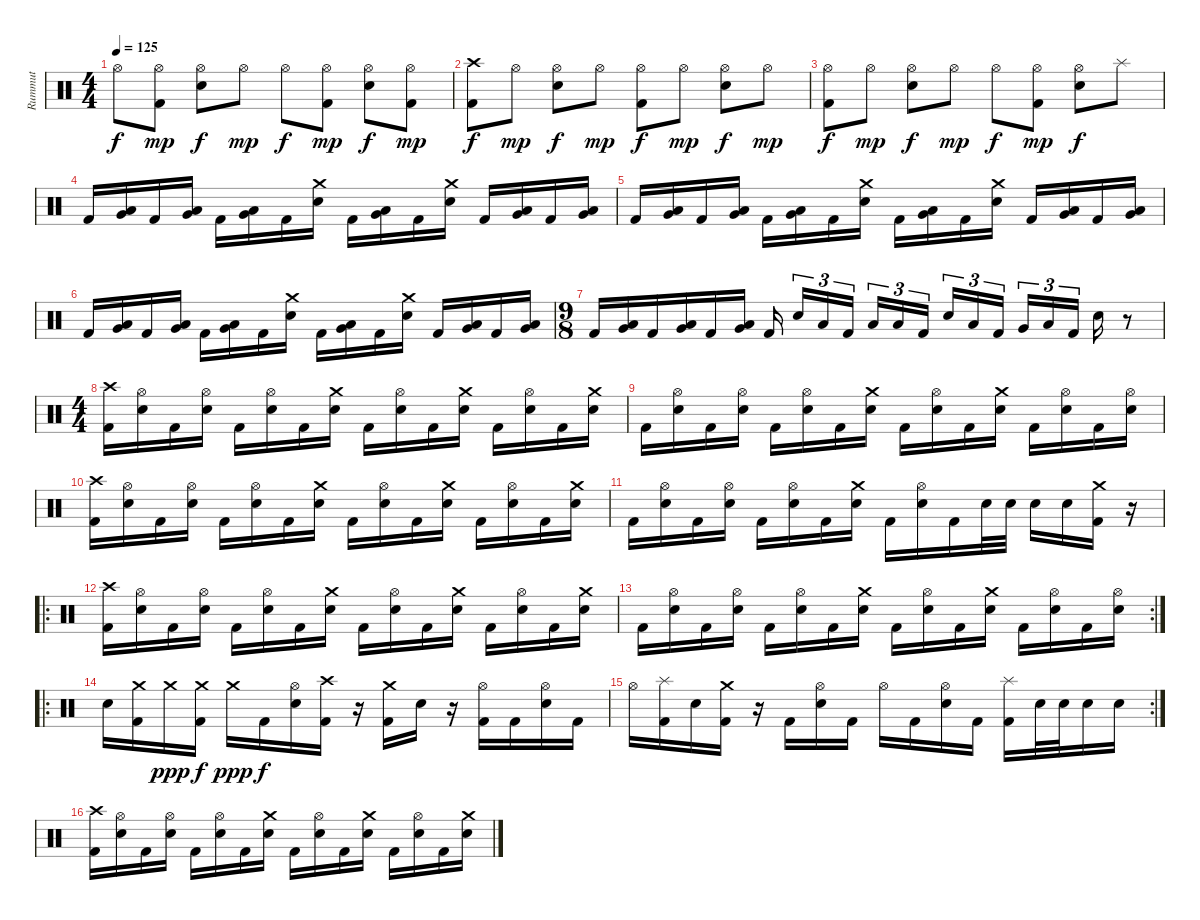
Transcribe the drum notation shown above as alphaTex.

\track ("Rummut" "Rummut") {instrument percussion}
\staff {score}
\articulation defaults
\ts (4 4)
\tempo 125
\clef neutral
\ks c "Hi-Hat (open)".8{dy f}
("Hi-Hat (open)" "Kick (hit) 2").8{dy mp} ("Hi-Hat (open)" "Electric Snare (hit)").8{dy f} "Hi-Hat (open)".8{dy mp} "Hi-Hat (open)".8{dy f} ("Hi-Hat (open)" "Kick (hit) 2").8{dy mp} ("Hi-Hat (open)" "Electric Snare (hit)").8{dy f} ("Hi-Hat (open)" "Kick (hit) 2").8{dy mp} |
("Crash high (hit)" "Kick (hit) 2").8{dy f} "Hi-Hat (open)".8{dy mp} ("Hi-Hat (open)" "Electric Snare (hit)").8{dy f} "Hi-Hat (open)".8{dy mp} ("Hi-Hat (open)" "Kick (hit) 2").8{dy f} "Hi-Hat (open)".8{dy mp} ("Hi-Hat (open)" "Electric Snare (hit)").8{dy f} "Hi-Hat (open)".8{dy mp} |
("Hi-Hat (open)" "Kick (hit) 2").8{dy f} "Hi-Hat (open)".8{dy mp} ("Hi-Hat (open)" "Electric Snare (hit)").8{dy f} "Hi-Hat (open)".8{dy mp} "Hi-Hat (open)".8{dy f} ("Hi-Hat (open)" "Kick (hit) 2").8{dy mp} ("Hi-Hat (open)" "Electric Snare (hit)").8{dy f} "Splash (hit)".8 |
"Kick (hit) 2".16 ("Low Floor Tom (hit)" "Very Low Tom (hit)").16 "Kick (hit) 2".16 ("Low Floor Tom (hit)" "Very Low Tom (hit)").16 "Kick (hit) 2".16 ("Low Floor Tom (hit)" "Very Low Tom (hit)").16 "Kick (hit) 2".16 ("Crash medium (hit)" "Electric Snare (hit)").16 "Kick (hit) 2".16 ("Low Floor Tom (hit)" "Very Low Tom (hit)").16 "Kick (hit) 2".16 ("Crash medium (hit)" "Electric Snare (hit)").16 "Kick (hit) 2".16 ("Low Floor Tom (hit)" "Very Low Tom (hit)").16 "Kick (hit) 2".16 ("Low Floor Tom (hit)" "Very Low Tom (hit)").16 |
"Kick (hit) 2".16 ("Low Floor Tom (hit)" "Very Low Tom (hit)").16 "Kick (hit) 2".16 ("Low Floor Tom (hit)" "Very Low Tom (hit)").16 "Kick (hit) 2".16 ("Low Floor Tom (hit)" "Very Low Tom (hit)").16 "Kick (hit) 2".16 ("Crash medium (hit)" "Electric Snare (hit)").16 "Kick (hit) 2".16 ("Low Floor Tom (hit)" "Very Low Tom (hit)").16 "Kick (hit) 2".16 ("Crash medium (hit)" "Electric Snare (hit)").16 "Kick (hit) 2".16 ("Low Floor Tom (hit)" "Very Low Tom (hit)").16 "Kick (hit) 2".16 ("Low Floor Tom (hit)" "Very Low Tom (hit)").16 |
"Kick (hit) 2".16 ("Low Floor Tom (hit)" "Very Low Tom (hit)").16 "Kick (hit) 2".16 ("Low Floor Tom (hit)" "Very Low Tom (hit)").16 "Kick (hit) 2".16 ("Low Floor Tom (hit)" "Very Low Tom (hit)").16 "Kick (hit) 2".16 ("Crash medium (hit)" "Electric Snare (hit)").16 "Kick (hit) 2".16 ("Low Floor Tom (hit)" "Very Low Tom (hit)").16 "Kick (hit) 2".16 ("Crash medium (hit)" "Electric Snare (hit)").16 "Kick (hit) 2".16 ("Low Floor Tom (hit)" "Very Low Tom (hit)").16 "Kick (hit) 2".16 ("Low Floor Tom (hit)" "Very Low Tom (hit)").16 |
\ts (9 8)
"Kick (hit) 2".16 ("Low Floor Tom (hit)" "Very Low Tom (hit)").16 "Kick (hit) 2".16 ("Low Floor Tom (hit)" "Very Low Tom (hit)").16 "Kick (hit) 2".16 ("Low Floor Tom (hit)" "Very Low Tom (hit)").16 "Kick (hit) 2".16 "Electric Snare (hit)".16{tu (3 2)} "Low Floor Tom (hit)".16{tu (3 2)} "Kick (hit) 2".16{tu (3 2)} "Low Tom (hit)".16{tu (3 2)} "Low Floor Tom (hit)".16{tu (3 2)} "Kick (hit) 2".16{tu (3 2)} "Electric Snare (hit)".16{tu (3 2)} "Low Floor Tom (hit)".16{tu (3 2)} "Kick (hit) 2".16{tu (3 2)} "Very Low Tom (hit)".16{tu (3 2)} "Low Floor Tom (hit)".16{tu (3 2)} "Kick (hit) 2".16{tu (3 2)} "Electric Snare (hit)".16 r.8 |
\ts (4 4)
("Crash high (hit)" "Kick (hit) 2").16 ("Hi-Hat (open)" "Electric Snare (hit)").16 "Kick (hit) 2".16 ("Hi-Hat (open)" "Electric Snare (hit)").16 "Kick (hit) 2".16 ("Hi-Hat (open)" "Electric Snare (hit)").16 "Kick (hit) 2".16 ("Crash medium (hit)" "Electric Snare (hit)").16 "Kick (hit) 2".16 ("Hi-Hat (open)" "Electric Snare (hit)").16 "Kick (hit) 2".16 ("Crash medium (hit)" "Electric Snare (hit)").16 "Kick (hit) 2".16 ("Hi-Hat (open)" "Electric Snare (hit)").16 "Kick (hit) 2".16 ("Crash medium (hit)" "Electric Snare (hit)").16 |
"Kick (hit) 2".16 ("Hi-Hat (open)" "Electric Snare (hit)").16 "Kick (hit) 2".16 ("Hi-Hat (open)" "Electric Snare (hit)").16 "Kick (hit) 2".16 ("Hi-Hat (open)" "Electric Snare (hit)").16 "Kick (hit) 2".16 ("Crash medium (hit)" "Electric Snare (hit)").16 "Kick (hit) 2".16 ("Hi-Hat (open)" "Electric Snare (hit)").16 "Kick (hit) 2".16 ("Crash medium (hit)" "Electric Snare (hit)").16 "Kick (hit) 2".16 ("Hi-Hat (open)" "Electric Snare (hit)").16 "Kick (hit) 2".16 ("Hi-Hat (open)" "Electric Snare (hit)").16 |
("Crash high (hit)" "Kick (hit) 2").16 ("Hi-Hat (open)" "Electric Snare (hit)").16 "Kick (hit) 2".16 ("Hi-Hat (open)" "Electric Snare (hit)").16 "Kick (hit) 2".16 ("Hi-Hat (open)" "Electric Snare (hit)").16 "Kick (hit) 2".16 ("Crash medium (hit)" "Electric Snare (hit)").16 "Kick (hit) 2".16 ("Hi-Hat (open)" "Electric Snare (hit)").16 "Kick (hit) 2".16 ("Crash medium (hit)" "Electric Snare (hit)").16 "Kick (hit) 2".16 ("Hi-Hat (open)" "Electric Snare (hit)").16 "Kick (hit) 2".16 ("Crash medium (hit)" "Electric Snare (hit)").16 |
"Kick (hit) 2".16 ("Hi-Hat (open)" "Electric Snare (hit)").16 "Kick (hit) 2".16 ("Hi-Hat (open)" "Electric Snare (hit)").16 "Kick (hit) 2".16 ("Hi-Hat (open)" "Electric Snare (hit)").16 "Kick (hit) 2".16 ("Crash medium (hit)" "Electric Snare (hit)").16 "Kick (hit) 2".16 ("Hi-Hat (open)" "Electric Snare (hit)").16 "Kick (hit) 2".16 "Electric Snare (hit)".32 "Electric Snare (hit)".32 "Electric Snare (hit)".16 "Electric Snare (hit)".16 ("Crash medium (hit)" "Kick (hit) 2").16 r.16 |
\ro
("Crash high (hit)" "Kick (hit) 2").16 ("Hi-Hat (open)" "Electric Snare (hit)").16 "Kick (hit) 2".16 ("Hi-Hat (open)" "Electric Snare (hit)").16 "Kick (hit) 2".16 ("Hi-Hat (open)" "Electric Snare (hit)").16 "Kick (hit) 2".16 ("Crash medium (hit)" "Electric Snare (hit)").16 "Kick (hit) 2".16 ("Hi-Hat (open)" "Electric Snare (hit)").16 "Kick (hit) 2".16 ("Crash medium (hit)" "Electric Snare (hit)").16 "Kick (hit) 2".16 ("Hi-Hat (open)" "Electric Snare (hit)").16 "Kick (hit) 2".16 ("Crash medium (hit)" "Electric Snare (hit)").16 |
\rc 2 "Kick (hit) 2".16
("Hi-Hat (open)" "Electric Snare (hit)").16 "Kick (hit) 2".16 ("Hi-Hat (open)" "Electric Snare (hit)").16 "Kick (hit) 2".16 ("Hi-Hat (open)" "Electric Snare (hit)").16 "Kick (hit) 2".16 ("Crash medium (hit)" "Electric Snare (hit)").16 "Kick (hit) 2".16 ("Hi-Hat (open)" "Electric Snare (hit)").16 "Kick (hit) 2".16 ("Crash medium (hit)" "Electric Snare (hit)").16 "Kick (hit) 2".16 ("Hi-Hat (open)" "Electric Snare (hit)").16 "Kick (hit) 2".16 ("Hi-Hat (open)" "Electric Snare (hit)").16 |
\ro "Electric Snare (hit)".16
("Crash medium (hit)" "Kick (hit) 2").16 "Crash medium (hit)".16{dy ppp} ("Crash medium (hit)" "Kick (hit) 2").16{dy f} "Crash medium (hit)".16{dy ppp} "Kick (hit) 2".16{dy f} ("Hi-Hat (open)" "Electric Snare (hit)").16 ("Crash high (hit)" "Kick (hit) 2").16 r.16 ("Crash medium (hit)" "Kick (hit) 2").16 "Electric Snare (hit)".16 r.16 ("Hi-Hat (open)" "Kick (hit) 2").16 "Kick (hit) 2".16 ("Hi-Hat (open)" "Electric Snare (hit)").16 "Kick (hit) 2".16 |
\rc 2 "Hi-Hat (open)".16
("Splash (hit)" "Kick (hit) 2").16 "Electric Snare (hit)".16 ("Crash medium (hit)" "Kick (hit) 2").16 r.16 "Kick (hit) 2".16 ("Hi-Hat (open)" "Electric Snare (hit)").16 "Kick (hit) 2".16 "Hi-Hat (open)".16 "Kick (hit) 2".16 ("Hi-Hat (open)" "Electric Snare (hit)").16 "Kick (hit) 2".16 ("Splash (hit)" "Kick (hit) 2").16 "Electric Snare (hit)".32 "Electric Snare (hit)".32 "Electric Snare (hit)".16 "Electric Snare (hit)".16 |
("Crash high (hit)" "Kick (hit) 2").16 ("Hi-Hat (open)" "Electric Snare (hit)").16 "Kick (hit) 2".16 ("Hi-Hat (open)" "Electric Snare (hit)").16 "Kick (hit) 2".16 ("Hi-Hat (open)" "Electric Snare (hit)").16 "Kick (hit) 2".16 ("Crash medium (hit)" "Electric Snare (hit)").16 "Kick (hit) 2".16 ("Hi-Hat (open)" "Electric Snare (hit)").16 "Kick (hit) 2".16 ("Crash medium (hit)" "Electric Snare (hit)").16 "Kick (hit) 2".16 ("Hi-Hat (open)" "Electric Snare (hit)").16 "Kick (hit) 2".16 ("Crash medium (hit)" "Electric Snare (hit)").16
